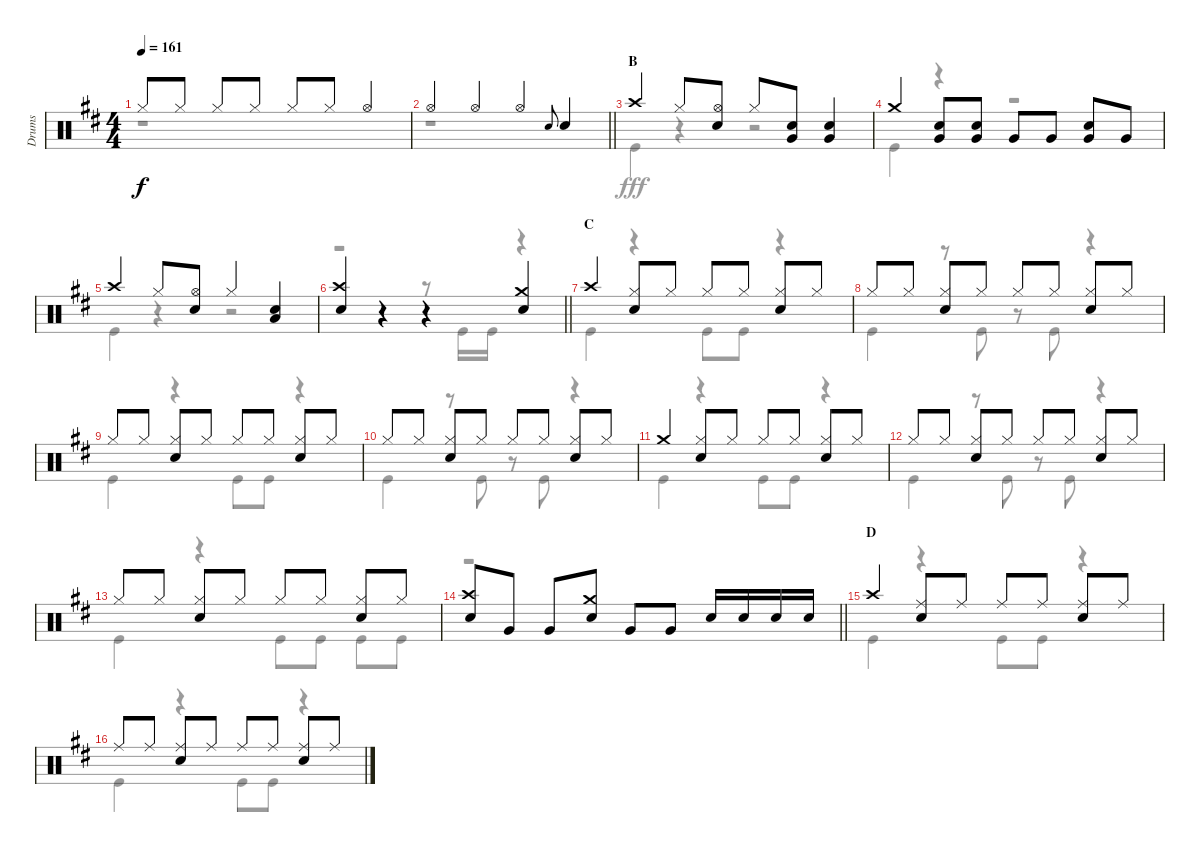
\track ("Drums" "Drums") {instrument percussion}
\staff {score}
\articulation defaults
\voice
\ts (4 4)
\tempo 161
\clef neutral
\ks d "Hi-Hat (closed)".8{dy f} "Hi-Hat (closed)".8 "Hi-Hat (closed)".8 "Hi-Hat (closed)".8 "Hi-Hat (closed)".8 "Hi-Hat (closed)".8 "Hi-Hat (open)".4
|
\barLineRight lightlight "Hi-Hat (open)".4 "Hi-Hat (open)".4 "Hi-Hat (open)".4 "Snare (hit) 2".8{gr onbeat} "Snare (hit) 2".4
|
\section ("" "B")
"Crash high (hit)".4 "Hi-Hat (closed)".8 ("Hi-Hat (open)" "Snare (hit) 2").8 "Hi-Hat (closed)".8 ("Snare (hit) 2" "Very Low Tom (hit)").8 ("Snare (hit) 2" "Very Low Tom (hit)").4 |
"Crash medium (hit)".4 ("Snare (hit) 2" "Very Low Tom (hit)").8 ("Snare (hit) 2" "Very Low Tom (hit)").8 "Very Low Tom (hit)".8 "Very Low Tom (hit)".8 ("Snare (hit) 2" "Very Low Tom (hit)").8 "Very Low Tom (hit)".8 |
"Crash high (hit)".4 "Hi-Hat (closed)".8 ("Hi-Hat (open)" "Snare (hit) 2").8 "Hi-Hat (closed)".4 ("Snare (hit) 2" "Low Tom (hit)").4 |
\barLineRight lightlight
("Crash high (hit)" "Snare (hit) 2").4 r.4 r.4 ("Crash medium (hit)" "Snare (hit) 2").4 |
\section ("" "C")
"Crash high (hit)".4 ("Hi-Hat (closed)" "Snare (hit) 2").8 "Hi-Hat (closed)".8 "Hi-Hat (closed)".8 "Hi-Hat (closed)".8 ("Hi-Hat (closed)" "Snare (hit) 2").8 "Hi-Hat (closed)".8 |
"Hi-Hat (closed)".8 "Hi-Hat (closed)".8 ("Hi-Hat (closed)" "Snare (hit) 2").8 "Hi-Hat (closed)".8 "Hi-Hat (closed)".8 "Hi-Hat (closed)".8 ("Hi-Hat (closed)" "Snare (hit) 2").8 "Hi-Hat (closed)".8 |
"Hi-Hat (closed)".8 "Hi-Hat (closed)".8 ("Hi-Hat (closed)" "Snare (hit) 2").8 "Hi-Hat (closed)".8 "Hi-Hat (closed)".8 "Hi-Hat (closed)".8 ("Hi-Hat (closed)" "Snare (hit) 2").8 "Hi-Hat (closed)".8 |
"Hi-Hat (closed)".8 "Hi-Hat (closed)".8 ("Hi-Hat (closed)" "Snare (hit) 2").8 "Hi-Hat (closed)".8 "Hi-Hat (closed)".8 "Hi-Hat (closed)".8 ("Hi-Hat (closed)" "Snare (hit) 2").8 "Hi-Hat (closed)".8 |
"Crash medium (hit)".4 ("Hi-Hat (closed)" "Snare (hit) 2").8 "Hi-Hat (closed)".8 "Hi-Hat (closed)".8 "Hi-Hat (closed)".8 ("Hi-Hat (closed)" "Snare (hit) 2").8 "Hi-Hat (closed)".8 |
"Hi-Hat (closed)".8 "Hi-Hat (closed)".8 ("Hi-Hat (closed)" "Snare (hit) 2").8 "Hi-Hat (closed)".8 "Hi-Hat (closed)".8 "Hi-Hat (closed)".8 ("Hi-Hat (closed)" "Snare (hit) 2").8 "Hi-Hat (closed)".8 |
"Hi-Hat (closed)".8 "Hi-Hat (closed)".8 ("Hi-Hat (closed)" "Snare (hit) 2").8 "Hi-Hat (closed)".8 "Hi-Hat (closed)".8 "Hi-Hat (closed)".8 ("Hi-Hat (closed)" "Snare (hit) 2").8 "Hi-Hat (closed)".8 |
\barLineRight lightlight
("Crash high (hit)" "Snare (hit) 2").8 "Very Low Tom (hit)".8 "Very Low Tom (hit)".8 ("Crash medium (hit)" "Snare (hit) 2").8 "Very Low Tom (hit)".8 "Very Low Tom (hit)".8 "Snare (hit) 2".16 "Snare (hit) 2".16 "Snare (hit) 2".16 "Snare (hit) 2".16 |
\section ("" "D")
"Crash high (hit)".4 ("Ride (middle)" "Snare (hit) 2").8 "Ride (middle)".8 "Ride (middle)".8 "Ride (middle)".8 ("Ride (middle)" "Snare (hit) 2").8 "Ride (middle)".8 |
"Ride (middle)".8 "Ride (middle)".8 ("Ride (middle)" "Snare (hit) 2").8 "Ride (middle)".8 "Ride (middle)".8 "Ride (middle)".8 ("Ride (middle)" "Snare (hit) 2").8 "Ride (middle)".8
\voice
\clef neutral
\ottava regular
\simile none
\ks d
r.1{dy fff} |
\barLineRight lightlight
r.1 |
"Kick (hit)".4 r.4 r.2 |
"Kick (hit)".4 r.4 r.2 |
"Kick (hit)".4 r.4 r.2 |
\barLineRight lightlight
r.2 r.8 "Kick (hit)".16 "Kick (hit)".16 r.4 |
"Kick (hit)".4 r.4 "Kick (hit)".8 "Kick (hit)".8 r.4 |
"Kick (hit)".4 r.8 "Kick (hit)".8 r.8 "Kick (hit)".8 r.4 |
"Kick (hit)".4 r.4 "Kick (hit)".8 "Kick (hit)".8 r.4 |
"Kick (hit)".4 r.8 "Kick (hit)".8 r.8 "Kick (hit)".8 r.4 |
"Kick (hit)".4 r.4 "Kick (hit)".8 "Kick (hit)".8 r.4 |
"Kick (hit)".4 r.8 "Kick (hit)".8 r.8 "Kick (hit)".8 r.4 |
"Kick (hit)".4 r.4 "Kick (hit)".8 "Kick (hit)".8 "Kick (hit)".8 "Kick (hit)".8 |
\barLineRight lightlight
r.1 |
"Kick (hit)".4 r.4 "Kick (hit)".8 "Kick (hit)".8 r.4 |
"Kick (hit)".4 r.4 "Kick (hit)".8 "Kick (hit)".8 r.4
